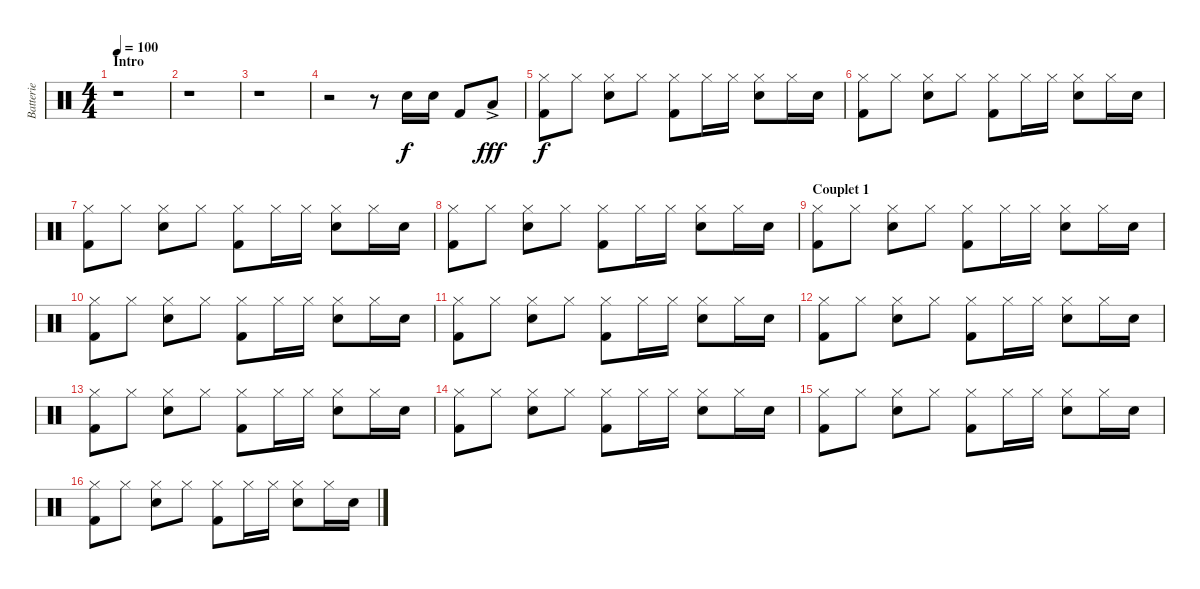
\track ("Batterie" "Batterie") {instrument percussion}
\staff {score}
\articulation defaults
\ts (4 4)
\section ("" "Intro")
\tempo 100
\clef neutral
\ks c
r.1{dy f} |
r.1 |
r.1 |
r.2 r.8 "Snare (hit) 2".16 "Snare (hit) 2".16 "Kick (hit) 2".8 "Low Floor Tom (hit)"{ac}.8{dy fff} |
("Kick (hit) 2" "Hi-Hat (closed)").8{dy f} "Hi-Hat (closed)".8 ("Electric Snare (hit)" "Hi-Hat (closed)").8 "Hi-Hat (closed)".8 ("Kick (hit) 2" "Hi-Hat (closed)").8 "Hi-Hat (closed)".16 "Hi-Hat (closed)".16 ("Electric Snare (hit)" "Hi-Hat (closed)").8 "Hi-Hat (closed)".16 "Electric Snare (hit)".16 |
("Kick (hit) 2" "Hi-Hat (closed)").8 "Hi-Hat (closed)".8 ("Electric Snare (hit)" "Hi-Hat (closed)").8 "Hi-Hat (closed)".8 ("Kick (hit) 2" "Hi-Hat (closed)").8 "Hi-Hat (closed)".16 "Hi-Hat (closed)".16 ("Electric Snare (hit)" "Hi-Hat (closed)").8 "Hi-Hat (closed)".16 "Electric Snare (hit)".16 |
("Kick (hit) 2" "Hi-Hat (closed)").8 "Hi-Hat (closed)".8 ("Electric Snare (hit)" "Hi-Hat (closed)").8 "Hi-Hat (closed)".8 ("Kick (hit) 2" "Hi-Hat (closed)").8 "Hi-Hat (closed)".16 "Hi-Hat (closed)".16 ("Electric Snare (hit)" "Hi-Hat (closed)").8 "Hi-Hat (closed)".16 "Electric Snare (hit)".16 |
("Kick (hit) 2" "Hi-Hat (closed)").8 "Hi-Hat (closed)".8 ("Electric Snare (hit)" "Hi-Hat (closed)").8 "Hi-Hat (closed)".8 ("Kick (hit) 2" "Hi-Hat (closed)").8 "Hi-Hat (closed)".16 "Hi-Hat (closed)".16 ("Electric Snare (hit)" "Hi-Hat (closed)").8 "Hi-Hat (closed)".16 "Electric Snare (hit)".16 |
\section ("" "Couplet 1")
("Kick (hit) 2" "Hi-Hat (closed)").8 "Hi-Hat (closed)".8 ("Electric Snare (hit)" "Hi-Hat (closed)").8 "Hi-Hat (closed)".8 ("Kick (hit) 2" "Hi-Hat (closed)").8 "Hi-Hat (closed)".16 "Hi-Hat (closed)".16 ("Electric Snare (hit)" "Hi-Hat (closed)").8 "Hi-Hat (closed)".16 "Electric Snare (hit)".16 |
("Kick (hit) 2" "Hi-Hat (closed)").8 "Hi-Hat (closed)".8 ("Electric Snare (hit)" "Hi-Hat (closed)").8 "Hi-Hat (closed)".8 ("Kick (hit) 2" "Hi-Hat (closed)").8 "Hi-Hat (closed)".16 "Hi-Hat (closed)".16 ("Electric Snare (hit)" "Hi-Hat (closed)").8 "Hi-Hat (closed)".16 "Electric Snare (hit)".16 |
("Kick (hit) 2" "Hi-Hat (closed)").8 "Hi-Hat (closed)".8 ("Electric Snare (hit)" "Hi-Hat (closed)").8 "Hi-Hat (closed)".8 ("Kick (hit) 2" "Hi-Hat (closed)").8 "Hi-Hat (closed)".16 "Hi-Hat (closed)".16 ("Electric Snare (hit)" "Hi-Hat (closed)").8 "Hi-Hat (closed)".16 "Electric Snare (hit)".16 |
("Kick (hit) 2" "Hi-Hat (closed)").8 "Hi-Hat (closed)".8 ("Electric Snare (hit)" "Hi-Hat (closed)").8 "Hi-Hat (closed)".8 ("Kick (hit) 2" "Hi-Hat (closed)").8 "Hi-Hat (closed)".16 "Hi-Hat (closed)".16 ("Electric Snare (hit)" "Hi-Hat (closed)").8 "Hi-Hat (closed)".16 "Electric Snare (hit)".16 |
("Kick (hit) 2" "Hi-Hat (closed)").8 "Hi-Hat (closed)".8 ("Electric Snare (hit)" "Hi-Hat (closed)").8 "Hi-Hat (closed)".8 ("Kick (hit) 2" "Hi-Hat (closed)").8 "Hi-Hat (closed)".16 "Hi-Hat (closed)".16 ("Electric Snare (hit)" "Hi-Hat (closed)").8 "Hi-Hat (closed)".16 "Electric Snare (hit)".16 |
("Kick (hit) 2" "Hi-Hat (closed)").8 "Hi-Hat (closed)".8 ("Electric Snare (hit)" "Hi-Hat (closed)").8 "Hi-Hat (closed)".8 ("Kick (hit) 2" "Hi-Hat (closed)").8 "Hi-Hat (closed)".16 "Hi-Hat (closed)".16 ("Electric Snare (hit)" "Hi-Hat (closed)").8 "Hi-Hat (closed)".16 "Electric Snare (hit)".16 |
("Kick (hit) 2" "Hi-Hat (closed)").8 "Hi-Hat (closed)".8 ("Electric Snare (hit)" "Hi-Hat (closed)").8 "Hi-Hat (closed)".8 ("Kick (hit) 2" "Hi-Hat (closed)").8 "Hi-Hat (closed)".16 "Hi-Hat (closed)".16 ("Electric Snare (hit)" "Hi-Hat (closed)").8 "Hi-Hat (closed)".16 "Electric Snare (hit)".16 |
("Kick (hit) 2" "Hi-Hat (closed)").8 "Hi-Hat (closed)".8 ("Electric Snare (hit)" "Hi-Hat (closed)").8 "Hi-Hat (closed)".8 ("Kick (hit) 2" "Hi-Hat (closed)").8 "Hi-Hat (closed)".16 "Hi-Hat (closed)".16 ("Electric Snare (hit)" "Hi-Hat (closed)").8 "Hi-Hat (closed)".16 "Electric Snare (hit)".16
